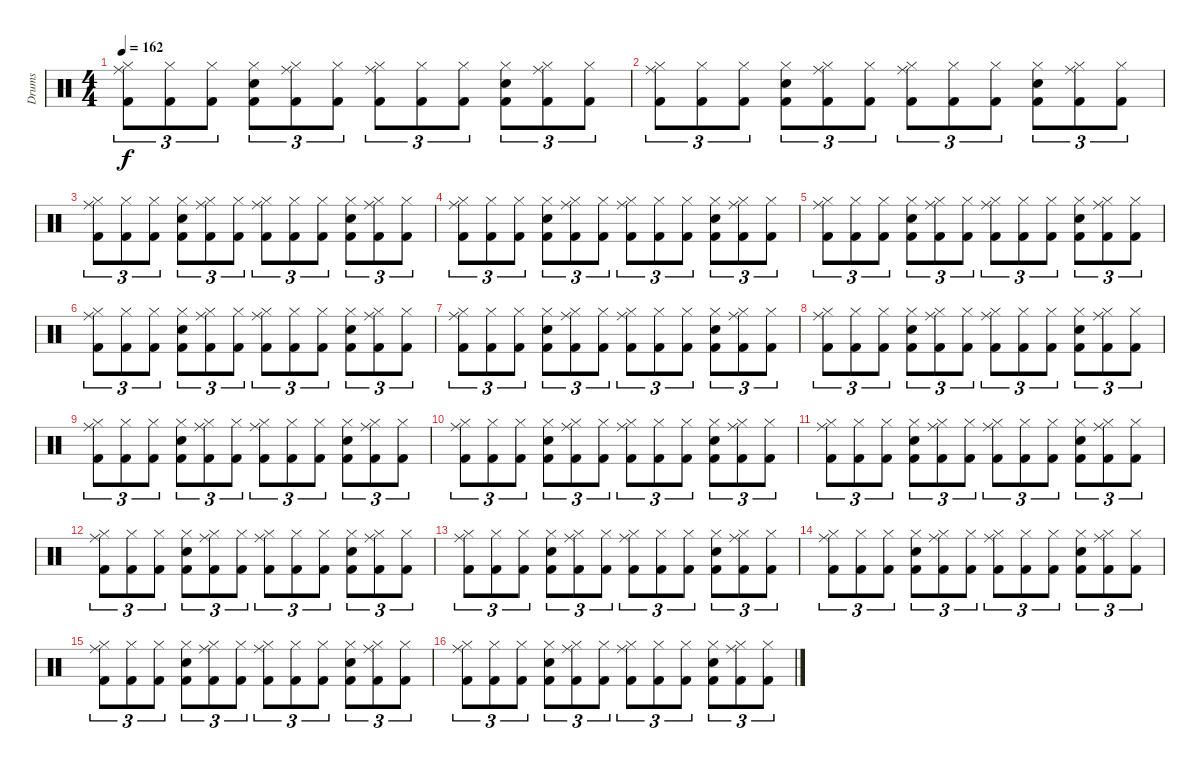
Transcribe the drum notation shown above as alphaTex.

\track ("Drums" "Drums") {instrument percussion}
\staff {score}
\articulation defaults
\ts (4 4)
\tempo 162
\clef neutral
\ks c
("Kick (hit) 2" "Ride (middle)" "Hi-Hat (closed)").8{tu (3 2) dy f} ("Kick (hit) 2" "Hi-Hat (closed)").8{tu (3 2)} ("Kick (hit) 2" "Hi-Hat (closed)").8{tu (3 2)} ("Kick (hit) 2" "Snare (hit) 2" "Hi-Hat (closed)").8{tu (3 2)} ("Kick (hit) 2" "Ride (middle)" "Hi-Hat (closed)").8{tu (3 2)} ("Kick (hit) 2" "Hi-Hat (closed)").8{tu (3 2)} ("Kick (hit) 2" "Ride (middle)" "Hi-Hat (closed)").8{tu (3 2)} ("Kick (hit) 2" "Hi-Hat (closed)").8{tu (3 2)} ("Kick (hit) 2" "Hi-Hat (closed)").8{tu (3 2)} ("Kick (hit) 2" "Snare (hit) 2" "Hi-Hat (closed)").8{tu (3 2)} ("Kick (hit) 2" "Ride (middle)" "Hi-Hat (closed)").8{tu (3 2)} ("Kick (hit) 2" "Hi-Hat (closed)").8{tu (3 2)} |
("Kick (hit) 2" "Ride (middle)" "Hi-Hat (closed)").8{tu (3 2)} ("Kick (hit) 2" "Hi-Hat (closed)").8{tu (3 2)} ("Kick (hit) 2" "Hi-Hat (closed)").8{tu (3 2)} ("Kick (hit) 2" "Snare (hit) 2" "Hi-Hat (closed)").8{tu (3 2)} ("Kick (hit) 2" "Ride (middle)" "Hi-Hat (closed)").8{tu (3 2)} ("Kick (hit) 2" "Hi-Hat (closed)").8{tu (3 2)} ("Kick (hit) 2" "Ride (middle)" "Hi-Hat (closed)").8{tu (3 2)} ("Kick (hit) 2" "Hi-Hat (closed)").8{tu (3 2)} ("Kick (hit) 2" "Hi-Hat (closed)").8{tu (3 2)} ("Kick (hit) 2" "Snare (hit) 2" "Hi-Hat (closed)").8{tu (3 2)} ("Kick (hit) 2" "Ride (middle)" "Hi-Hat (closed)").8{tu (3 2)} ("Kick (hit) 2" "Hi-Hat (closed)").8{tu (3 2)} |
("Kick (hit) 2" "Ride (middle)" "Hi-Hat (closed)").8{tu (3 2)} ("Kick (hit) 2" "Hi-Hat (closed)").8{tu (3 2)} ("Kick (hit) 2" "Hi-Hat (closed)").8{tu (3 2)} ("Kick (hit) 2" "Snare (hit) 2" "Hi-Hat (closed)").8{tu (3 2)} ("Kick (hit) 2" "Ride (middle)" "Hi-Hat (closed)").8{tu (3 2)} ("Kick (hit) 2" "Hi-Hat (closed)").8{tu (3 2)} ("Kick (hit) 2" "Ride (middle)" "Hi-Hat (closed)").8{tu (3 2)} ("Kick (hit) 2" "Hi-Hat (closed)").8{tu (3 2)} ("Kick (hit) 2" "Hi-Hat (closed)").8{tu (3 2)} ("Kick (hit) 2" "Snare (hit) 2" "Hi-Hat (closed)").8{tu (3 2)} ("Kick (hit) 2" "Ride (middle)" "Hi-Hat (closed)").8{tu (3 2)} ("Kick (hit) 2" "Hi-Hat (closed)").8{tu (3 2)} |
("Kick (hit) 2" "Ride (middle)" "Hi-Hat (closed)").8{tu (3 2)} ("Kick (hit) 2" "Hi-Hat (closed)").8{tu (3 2)} ("Kick (hit) 2" "Hi-Hat (closed)").8{tu (3 2)} ("Kick (hit) 2" "Snare (hit) 2" "Hi-Hat (closed)").8{tu (3 2)} ("Kick (hit) 2" "Ride (middle)" "Hi-Hat (closed)").8{tu (3 2)} ("Kick (hit) 2" "Hi-Hat (closed)").8{tu (3 2)} ("Kick (hit) 2" "Ride (middle)" "Hi-Hat (closed)").8{tu (3 2)} ("Kick (hit) 2" "Hi-Hat (closed)").8{tu (3 2)} ("Kick (hit) 2" "Hi-Hat (closed)").8{tu (3 2)} ("Kick (hit) 2" "Snare (hit) 2" "Hi-Hat (closed)").8{tu (3 2)} ("Kick (hit) 2" "Ride (middle)" "Hi-Hat (closed)").8{tu (3 2)} ("Kick (hit) 2" "Hi-Hat (closed)").8{tu (3 2)} |
("Kick (hit) 2" "Ride (middle)" "Hi-Hat (closed)").8{tu (3 2)} ("Kick (hit) 2" "Hi-Hat (closed)").8{tu (3 2)} ("Kick (hit) 2" "Hi-Hat (closed)").8{tu (3 2)} ("Kick (hit) 2" "Snare (hit) 2" "Hi-Hat (closed)").8{tu (3 2)} ("Kick (hit) 2" "Ride (middle)" "Hi-Hat (closed)").8{tu (3 2)} ("Kick (hit) 2" "Hi-Hat (closed)").8{tu (3 2)} ("Kick (hit) 2" "Ride (middle)" "Hi-Hat (closed)").8{tu (3 2)} ("Kick (hit) 2" "Hi-Hat (closed)").8{tu (3 2)} ("Kick (hit) 2" "Hi-Hat (closed)").8{tu (3 2)} ("Kick (hit) 2" "Snare (hit) 2" "Hi-Hat (closed)").8{tu (3 2)} ("Kick (hit) 2" "Ride (middle)" "Hi-Hat (closed)").8{tu (3 2)} ("Kick (hit) 2" "Hi-Hat (closed)").8{tu (3 2)} |
("Kick (hit) 2" "Ride (middle)" "Hi-Hat (closed)").8{tu (3 2)} ("Kick (hit) 2" "Hi-Hat (closed)").8{tu (3 2)} ("Kick (hit) 2" "Hi-Hat (closed)").8{tu (3 2)} ("Kick (hit) 2" "Snare (hit) 2" "Hi-Hat (closed)").8{tu (3 2)} ("Kick (hit) 2" "Ride (middle)" "Hi-Hat (closed)").8{tu (3 2)} ("Kick (hit) 2" "Hi-Hat (closed)").8{tu (3 2)} ("Kick (hit) 2" "Ride (middle)" "Hi-Hat (closed)").8{tu (3 2)} ("Kick (hit) 2" "Hi-Hat (closed)").8{tu (3 2)} ("Kick (hit) 2" "Hi-Hat (closed)").8{tu (3 2)} ("Kick (hit) 2" "Snare (hit) 2" "Hi-Hat (closed)").8{tu (3 2)} ("Kick (hit) 2" "Ride (middle)" "Hi-Hat (closed)").8{tu (3 2)} ("Kick (hit) 2" "Hi-Hat (closed)").8{tu (3 2)} |
("Kick (hit) 2" "Ride (middle)" "Hi-Hat (closed)").8{tu (3 2)} ("Kick (hit) 2" "Hi-Hat (closed)").8{tu (3 2)} ("Kick (hit) 2" "Hi-Hat (closed)").8{tu (3 2)} ("Kick (hit) 2" "Snare (hit) 2" "Hi-Hat (closed)").8{tu (3 2)} ("Kick (hit) 2" "Ride (middle)" "Hi-Hat (closed)").8{tu (3 2)} ("Kick (hit) 2" "Hi-Hat (closed)").8{tu (3 2)} ("Kick (hit) 2" "Ride (middle)" "Hi-Hat (closed)").8{tu (3 2)} ("Kick (hit) 2" "Hi-Hat (closed)").8{tu (3 2)} ("Kick (hit) 2" "Hi-Hat (closed)").8{tu (3 2)} ("Kick (hit) 2" "Snare (hit) 2" "Hi-Hat (closed)").8{tu (3 2)} ("Kick (hit) 2" "Ride (middle)" "Hi-Hat (closed)").8{tu (3 2)} ("Kick (hit) 2" "Hi-Hat (closed)").8{tu (3 2)} |
("Kick (hit) 2" "Ride (middle)" "Hi-Hat (closed)").8{tu (3 2)} ("Kick (hit) 2" "Hi-Hat (closed)").8{tu (3 2)} ("Kick (hit) 2" "Hi-Hat (closed)").8{tu (3 2)} ("Kick (hit) 2" "Snare (hit) 2" "Hi-Hat (closed)").8{tu (3 2)} ("Kick (hit) 2" "Ride (middle)" "Hi-Hat (closed)").8{tu (3 2)} ("Kick (hit) 2" "Hi-Hat (closed)").8{tu (3 2)} ("Kick (hit) 2" "Ride (middle)" "Hi-Hat (closed)").8{tu (3 2)} ("Kick (hit) 2" "Hi-Hat (closed)").8{tu (3 2)} ("Kick (hit) 2" "Hi-Hat (closed)").8{tu (3 2)} ("Kick (hit) 2" "Snare (hit) 2" "Hi-Hat (closed)").8{tu (3 2)} ("Kick (hit) 2" "Ride (middle)" "Hi-Hat (closed)").8{tu (3 2)} ("Kick (hit) 2" "Hi-Hat (closed)").8{tu (3 2)} |
("Kick (hit) 2" "Ride (middle)" "Hi-Hat (closed)").8{tu (3 2)} ("Kick (hit) 2" "Hi-Hat (closed)").8{tu (3 2)} ("Kick (hit) 2" "Hi-Hat (closed)").8{tu (3 2)} ("Kick (hit) 2" "Snare (hit) 2" "Hi-Hat (closed)").8{tu (3 2)} ("Kick (hit) 2" "Ride (middle)" "Hi-Hat (closed)").8{tu (3 2)} ("Kick (hit) 2" "Hi-Hat (closed)").8{tu (3 2)} ("Kick (hit) 2" "Ride (middle)" "Hi-Hat (closed)").8{tu (3 2)} ("Kick (hit) 2" "Hi-Hat (closed)").8{tu (3 2)} ("Kick (hit) 2" "Hi-Hat (closed)").8{tu (3 2)} ("Kick (hit) 2" "Snare (hit) 2" "Hi-Hat (closed)").8{tu (3 2)} ("Kick (hit) 2" "Ride (middle)" "Hi-Hat (closed)").8{tu (3 2)} ("Kick (hit) 2" "Hi-Hat (closed)").8{tu (3 2)} |
("Kick (hit) 2" "Ride (middle)" "Hi-Hat (closed)").8{tu (3 2)} ("Kick (hit) 2" "Hi-Hat (closed)").8{tu (3 2)} ("Kick (hit) 2" "Hi-Hat (closed)").8{tu (3 2)} ("Kick (hit) 2" "Snare (hit) 2" "Hi-Hat (closed)").8{tu (3 2)} ("Kick (hit) 2" "Ride (middle)" "Hi-Hat (closed)").8{tu (3 2)} ("Kick (hit) 2" "Hi-Hat (closed)").8{tu (3 2)} ("Kick (hit) 2" "Ride (middle)" "Hi-Hat (closed)").8{tu (3 2)} ("Kick (hit) 2" "Hi-Hat (closed)").8{tu (3 2)} ("Kick (hit) 2" "Hi-Hat (closed)").8{tu (3 2)} ("Kick (hit) 2" "Snare (hit) 2" "Hi-Hat (closed)").8{tu (3 2)} ("Kick (hit) 2" "Ride (middle)" "Hi-Hat (closed)").8{tu (3 2)} ("Kick (hit) 2" "Hi-Hat (closed)").8{tu (3 2)} |
("Kick (hit) 2" "Ride (middle)" "Hi-Hat (closed)").8{tu (3 2)} ("Kick (hit) 2" "Hi-Hat (closed)").8{tu (3 2)} ("Kick (hit) 2" "Hi-Hat (closed)").8{tu (3 2)} ("Kick (hit) 2" "Snare (hit) 2" "Hi-Hat (closed)").8{tu (3 2)} ("Kick (hit) 2" "Ride (middle)" "Hi-Hat (closed)").8{tu (3 2)} ("Kick (hit) 2" "Hi-Hat (closed)").8{tu (3 2)} ("Kick (hit) 2" "Ride (middle)" "Hi-Hat (closed)").8{tu (3 2)} ("Kick (hit) 2" "Hi-Hat (closed)").8{tu (3 2)} ("Kick (hit) 2" "Hi-Hat (closed)").8{tu (3 2)} ("Kick (hit) 2" "Snare (hit) 2" "Hi-Hat (closed)").8{tu (3 2)} ("Kick (hit) 2" "Ride (middle)" "Hi-Hat (closed)").8{tu (3 2)} ("Kick (hit) 2" "Hi-Hat (closed)").8{tu (3 2)} |
("Kick (hit) 2" "Ride (middle)" "Hi-Hat (closed)").8{tu (3 2)} ("Kick (hit) 2" "Hi-Hat (closed)").8{tu (3 2)} ("Kick (hit) 2" "Hi-Hat (closed)").8{tu (3 2)} ("Kick (hit) 2" "Snare (hit) 2" "Hi-Hat (closed)").8{tu (3 2)} ("Kick (hit) 2" "Ride (middle)" "Hi-Hat (closed)").8{tu (3 2)} ("Kick (hit) 2" "Hi-Hat (closed)").8{tu (3 2)} ("Kick (hit) 2" "Ride (middle)" "Hi-Hat (closed)").8{tu (3 2)} ("Kick (hit) 2" "Hi-Hat (closed)").8{tu (3 2)} ("Kick (hit) 2" "Hi-Hat (closed)").8{tu (3 2)} ("Kick (hit) 2" "Snare (hit) 2" "Hi-Hat (closed)").8{tu (3 2)} ("Kick (hit) 2" "Ride (middle)" "Hi-Hat (closed)").8{tu (3 2)} ("Kick (hit) 2" "Hi-Hat (closed)").8{tu (3 2)} |
("Kick (hit) 2" "Ride (middle)" "Hi-Hat (closed)").8{tu (3 2)} ("Kick (hit) 2" "Hi-Hat (closed)").8{tu (3 2)} ("Kick (hit) 2" "Hi-Hat (closed)").8{tu (3 2)} ("Kick (hit) 2" "Snare (hit) 2" "Hi-Hat (closed)").8{tu (3 2)} ("Kick (hit) 2" "Ride (middle)" "Hi-Hat (closed)").8{tu (3 2)} ("Kick (hit) 2" "Hi-Hat (closed)").8{tu (3 2)} ("Kick (hit) 2" "Ride (middle)" "Hi-Hat (closed)").8{tu (3 2)} ("Kick (hit) 2" "Hi-Hat (closed)").8{tu (3 2)} ("Kick (hit) 2" "Hi-Hat (closed)").8{tu (3 2)} ("Kick (hit) 2" "Snare (hit) 2" "Hi-Hat (closed)").8{tu (3 2)} ("Kick (hit) 2" "Ride (middle)" "Hi-Hat (closed)").8{tu (3 2)} ("Kick (hit) 2" "Hi-Hat (closed)").8{tu (3 2)} |
("Kick (hit) 2" "Ride (middle)" "Hi-Hat (closed)").8{tu (3 2)} ("Kick (hit) 2" "Hi-Hat (closed)").8{tu (3 2)} ("Kick (hit) 2" "Hi-Hat (closed)").8{tu (3 2)} ("Kick (hit) 2" "Snare (hit) 2" "Hi-Hat (closed)").8{tu (3 2)} ("Kick (hit) 2" "Ride (middle)" "Hi-Hat (closed)").8{tu (3 2)} ("Kick (hit) 2" "Hi-Hat (closed)").8{tu (3 2)} ("Kick (hit) 2" "Ride (middle)" "Hi-Hat (closed)").8{tu (3 2)} ("Kick (hit) 2" "Hi-Hat (closed)").8{tu (3 2)} ("Kick (hit) 2" "Hi-Hat (closed)").8{tu (3 2)} ("Kick (hit) 2" "Snare (hit) 2" "Hi-Hat (closed)").8{tu (3 2)} ("Kick (hit) 2" "Ride (middle)" "Hi-Hat (closed)").8{tu (3 2)} ("Kick (hit) 2" "Hi-Hat (closed)").8{tu (3 2)} |
("Kick (hit) 2" "Ride (middle)" "Hi-Hat (closed)").8{tu (3 2)} ("Kick (hit) 2" "Hi-Hat (closed)").8{tu (3 2)} ("Kick (hit) 2" "Hi-Hat (closed)").8{tu (3 2)} ("Kick (hit) 2" "Snare (hit) 2" "Hi-Hat (closed)").8{tu (3 2)} ("Kick (hit) 2" "Ride (middle)" "Hi-Hat (closed)").8{tu (3 2)} ("Kick (hit) 2" "Hi-Hat (closed)").8{tu (3 2)} ("Kick (hit) 2" "Ride (middle)" "Hi-Hat (closed)").8{tu (3 2)} ("Kick (hit) 2" "Hi-Hat (closed)").8{tu (3 2)} ("Kick (hit) 2" "Hi-Hat (closed)").8{tu (3 2)} ("Kick (hit) 2" "Snare (hit) 2" "Hi-Hat (closed)").8{tu (3 2)} ("Kick (hit) 2" "Ride (middle)" "Hi-Hat (closed)").8{tu (3 2)} ("Kick (hit) 2" "Hi-Hat (closed)").8{tu (3 2)} |
("Kick (hit) 2" "Ride (middle)" "Hi-Hat (closed)").8{tu (3 2)} ("Kick (hit) 2" "Hi-Hat (closed)").8{tu (3 2)} ("Kick (hit) 2" "Hi-Hat (closed)").8{tu (3 2)} ("Kick (hit) 2" "Snare (hit) 2" "Hi-Hat (closed)").8{tu (3 2)} ("Kick (hit) 2" "Ride (middle)" "Hi-Hat (closed)").8{tu (3 2)} ("Kick (hit) 2" "Hi-Hat (closed)").8{tu (3 2)} ("Kick (hit) 2" "Ride (middle)" "Hi-Hat (closed)").8{tu (3 2)} ("Kick (hit) 2" "Hi-Hat (closed)").8{tu (3 2)} ("Kick (hit) 2" "Hi-Hat (closed)").8{tu (3 2)} ("Kick (hit) 2" "Snare (hit) 2" "Hi-Hat (closed)").8{tu (3 2)} ("Kick (hit) 2" "Ride (middle)" "Hi-Hat (closed)").8{tu (3 2)} ("Kick (hit) 2" "Hi-Hat (closed)").8{tu (3 2)}
